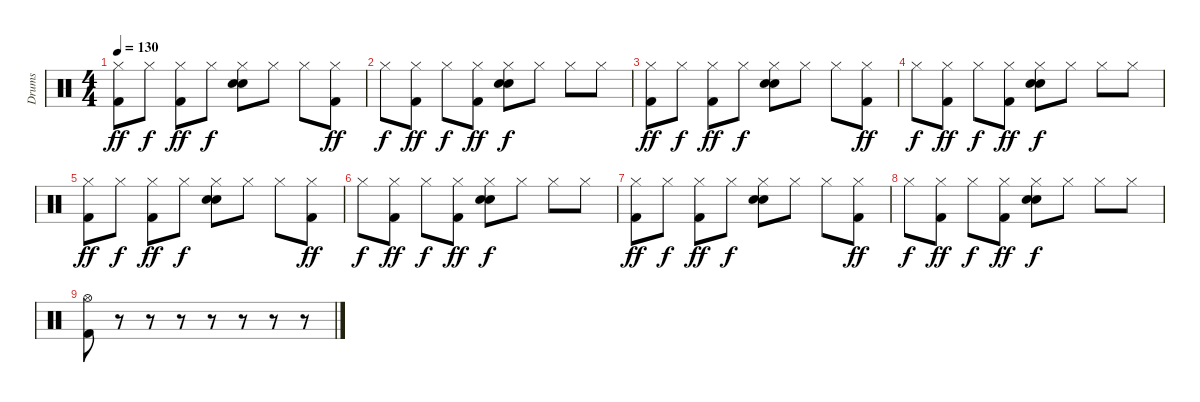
\track ("Drums" "Drums") {instrument percussion}
\staff {score}
\articulation defaults
\ts (4 4)
\tempo 130
\clef neutral
\ks c
("Hi-Hat (closed)" "Kick (hit) 2").8{dy ff} "Hi-Hat (closed)".8{dy f} ("Hi-Hat (closed)" "Kick (hit) 2").8{dy ff} "Hi-Hat (closed)".8{dy f} ("Snare (hit) 2" "Electric Snare (hit)" "Hi-Hat (closed)").8 "Hi-Hat (closed)".8 "Hi-Hat (closed)".8 ("Hi-Hat (closed)" "Kick (hit) 2").8{dy ff} |
"Hi-Hat (closed)".8{dy f} ("Hi-Hat (closed)" "Kick (hit) 2").8{dy ff} "Hi-Hat (closed)".8{dy f} ("Hi-Hat (closed)" "Kick (hit) 2").8{dy ff} ("Snare (hit) 2" "Electric Snare (hit)" "Hi-Hat (closed)").8{dy f} "Hi-Hat (closed)".8 "Hi-Hat (closed)".8 "Hi-Hat (closed)".8 |
("Hi-Hat (closed)" "Kick (hit) 2").8{dy ff} "Hi-Hat (closed)".8{dy f} ("Hi-Hat (closed)" "Kick (hit) 2").8{dy ff} "Hi-Hat (closed)".8{dy f} ("Snare (hit) 2" "Electric Snare (hit)" "Hi-Hat (closed)").8 "Hi-Hat (closed)".8 "Hi-Hat (closed)".8 ("Hi-Hat (closed)" "Kick (hit) 2").8{dy ff} |
"Hi-Hat (closed)".8{dy f} ("Hi-Hat (closed)" "Kick (hit) 2").8{dy ff} "Hi-Hat (closed)".8{dy f} ("Hi-Hat (closed)" "Kick (hit) 2").8{dy ff} ("Snare (hit) 2" "Electric Snare (hit)" "Hi-Hat (closed)").8{dy f} "Hi-Hat (closed)".8 "Hi-Hat (closed)".8 "Hi-Hat (closed)".8 |
("Hi-Hat (closed)" "Kick (hit) 2").8{dy ff} "Hi-Hat (closed)".8{dy f} ("Hi-Hat (closed)" "Kick (hit) 2").8{dy ff} "Hi-Hat (closed)".8{dy f} ("Snare (hit) 2" "Electric Snare (hit)" "Hi-Hat (closed)").8 "Hi-Hat (closed)".8 "Hi-Hat (closed)".8 ("Hi-Hat (closed)" "Kick (hit) 2").8{dy ff} |
"Hi-Hat (closed)".8{dy f} ("Hi-Hat (closed)" "Kick (hit) 2").8{dy ff} "Hi-Hat (closed)".8{dy f} ("Hi-Hat (closed)" "Kick (hit) 2").8{dy ff} ("Snare (hit) 2" "Electric Snare (hit)" "Hi-Hat (closed)").8{dy f} "Hi-Hat (closed)".8 "Hi-Hat (closed)".8 "Hi-Hat (closed)".8 |
("Hi-Hat (closed)" "Kick (hit) 2").8{dy ff} "Hi-Hat (closed)".8{dy f} ("Hi-Hat (closed)" "Kick (hit) 2").8{dy ff} "Hi-Hat (closed)".8{dy f} ("Snare (hit) 2" "Electric Snare (hit)" "Hi-Hat (closed)").8 "Hi-Hat (closed)".8 "Hi-Hat (closed)".8 ("Hi-Hat (closed)" "Kick (hit) 2").8{dy ff} |
"Hi-Hat (closed)".8{dy f} ("Hi-Hat (closed)" "Kick (hit) 2").8{dy ff} "Hi-Hat (closed)".8{dy f} ("Hi-Hat (closed)" "Kick (hit) 2").8{dy ff} ("Snare (hit) 2" "Electric Snare (hit)" "Hi-Hat (closed)").8{dy f} "Hi-Hat (closed)".8 "Hi-Hat (closed)".8 "Hi-Hat (closed)".8 |
("Hi-Hat (open)" "Kick (hit) 2").8 r.8 r.8 r.8 r.8 r.8 r.8 r.8
